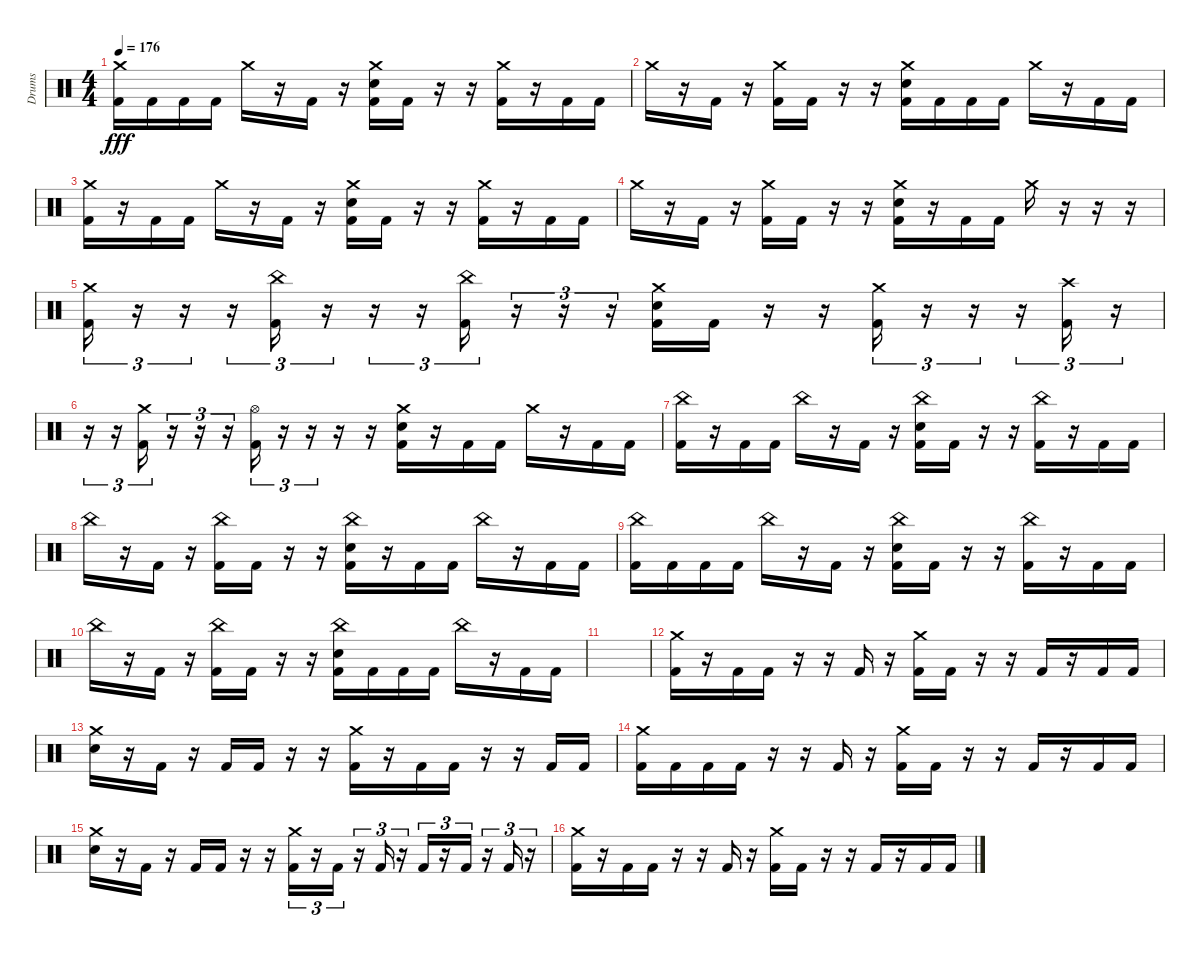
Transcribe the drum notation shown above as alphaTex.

\track ("Drums" "Drums") {instrument percussion}
\staff {score}
\articulation defaults
\ts (4 4)
\tempo 176
\clef neutral
\ks c
("Crash medium (hit)" "Kick (hit) 2").16{dy fff} "Kick (hit) 2".16 "Kick (hit) 2".16 "Kick (hit) 2".16 "Crash medium (hit)".16 r.16 "Kick (hit) 2".16 r.16 ("Crash medium (hit)" "Kick (hit) 2" "Electric Snare (hit)").16 "Kick (hit) 2".16 r.16 r.16 ("Crash medium (hit)" "Kick (hit) 2").16 r.16 "Kick (hit) 2".16 "Kick (hit) 2".16 |
"Crash medium (hit)".16 r.16 "Kick (hit) 2".16 r.16 ("Crash medium (hit)" "Kick (hit) 2").16 "Kick (hit) 2".16 r.16 r.16 ("Crash medium (hit)" "Kick (hit) 2" "Electric Snare (hit)").16 "Kick (hit) 2".16 "Kick (hit) 2".16 "Kick (hit) 2".16 "Crash medium (hit)".16 r.16 "Kick (hit) 2".16 "Kick (hit) 2".16 |
("Crash medium (hit)" "Kick (hit) 2").16 r.16 "Kick (hit) 2".16 "Kick (hit) 2".16 "Crash medium (hit)".16 r.16 "Kick (hit) 2".16 r.16 ("Crash medium (hit)" "Kick (hit) 2" "Electric Snare (hit)").16 "Kick (hit) 2".16 r.16 r.16 ("Crash medium (hit)" "Kick (hit) 2").16 r.16 "Kick (hit) 2".16 "Kick (hit) 2".16 |
"Crash medium (hit)".16 r.16 "Kick (hit) 2".16 r.16 ("Crash medium (hit)" "Kick (hit) 2").16 "Kick (hit) 2".16 r.16 r.16 ("Crash medium (hit)" "Kick (hit) 2" "Electric Snare (hit)").16 r.16 "Kick (hit) 2".16 "Kick (hit) 2".16 "Crash medium (hit)".16 r.16 r.16 r.16 |
("Kick (hit) 2" "Crash medium (hit)").16{tu (3 2)} r.16{tu (3 2)} r.16{tu (3 2)} r.16{tu (3 2)} ("Kick (hit) 2" "China (hit)").16{tu (3 2)} r.16{tu (3 2)} r.16{tu (3 2)} r.16{tu (3 2)} ("Kick (hit) 2" "China (hit)").16{tu (3 2)} r.16{tu (3 2)} r.16{tu (3 2)} r.16{tu (3 2)} ("Kick (hit) 2" "Crash medium (hit)" "Electric Snare (hit)").16 "Kick (hit) 2".16 r.16 r.16 ("Kick (hit) 2" "Crash medium (hit)").16{tu (3 2)} r.16{tu (3 2)} r.16{tu (3 2)} r.16{tu (3 2)} ("Kick (hit) 2" "Crash high (hit)").16{tu (3 2)} r.16{tu (3 2)} |
r.16{tu (3 2)} r.16{tu (3 2)} ("Kick (hit) 2" "Crash medium (hit)").16{tu (3 2)} r.16{tu (3 2)} r.16{tu (3 2)} r.16{tu (3 2)} ("Kick (hit) 2" "Hi-Hat (open)").16{tu (3 2)} r.16{tu (3 2)} r.16{tu (3 2)} r.16 r.16 ("Kick (hit) 2" "Crash medium (hit)" "Electric Snare (hit)").16 r.16 "Kick (hit) 2".16 "Kick (hit) 2".16 "Crash medium (hit)".16 r.16 "Kick (hit) 2".16 "Kick (hit) 2".16 |
("China (hit)" "Kick (hit) 2").16 r.16 "Kick (hit) 2".16 "Kick (hit) 2".16 "China (hit)".16 r.16 "Kick (hit) 2".16 r.16 ("China (hit)" "Kick (hit) 2" "Electric Snare (hit)").16 "Kick (hit) 2".16 r.16 r.16 ("China (hit)" "Kick (hit) 2").16 r.16 "Kick (hit) 2".16 "Kick (hit) 2".16 |
"China (hit)".16 r.16 "Kick (hit) 2".16 r.16 ("China (hit)" "Kick (hit) 2").16 "Kick (hit) 2".16 r.16 r.16 ("China (hit)" "Kick (hit) 2" "Electric Snare (hit)").16 r.16 "Kick (hit) 2".16 "Kick (hit) 2".16 "China (hit)".16 r.16 "Kick (hit) 2".16 "Kick (hit) 2".16 |
("China (hit)" "Kick (hit) 2").16 "Kick (hit) 2".16 "Kick (hit) 2".16 "Kick (hit) 2".16 "China (hit)".16 r.16 "Kick (hit) 2".16 r.16 ("China (hit)" "Kick (hit) 2" "Electric Snare (hit)").16 "Kick (hit) 2".16 r.16 r.16 ("China (hit)" "Kick (hit) 2").16 r.16 "Kick (hit) 2".16 "Kick (hit) 2".16 |
"China (hit)".16 r.16 "Kick (hit) 2".16 r.16 ("China (hit)" "Kick (hit) 2").16 "Kick (hit) 2".16 r.16 r.16 ("China (hit)" "Kick (hit) 2" "Electric Snare (hit)").16 "Kick (hit) 2".16 "Kick (hit) 2".16 "Kick (hit) 2".16 "China (hit)".16 r.16 "Kick (hit) 2".16 "Kick (hit) 2".16 |
|
("Crash medium (hit)" "Kick (hit) 2").16 r.16 "Kick (hit) 2".16 "Kick (hit) 2".16 r.16 r.16 "Kick (hit) 2".16 r.16 ("Crash medium (hit)" "Kick (hit) 2").16 "Kick (hit) 2".16 r.16 r.16 "Kick (hit) 2".16 r.16 "Kick (hit) 2".16 "Kick (hit) 2".16 |
("Crash medium (hit)" "Electric Snare (hit)").16 r.16 "Kick (hit) 2".16 r.16 "Kick (hit) 2".16 "Kick (hit) 2".16 r.16 r.16 ("Crash medium (hit)" "Kick (hit) 2").16 r.16 "Kick (hit) 2".16 "Kick (hit) 2".16 r.16 r.16 "Kick (hit) 2".16 "Kick (hit) 2".16 |
("Crash medium (hit)" "Kick (hit) 2").16 "Kick (hit) 2".16 "Kick (hit) 2".16 "Kick (hit) 2".16 r.16 r.16 "Kick (hit) 2".16 r.16 ("Crash medium (hit)" "Kick (hit) 2").16 "Kick (hit) 2".16 r.16 r.16 "Kick (hit) 2".16 r.16 "Kick (hit) 2".16 "Kick (hit) 2".16 |
("Crash medium (hit)" "Electric Snare (hit)").16 r.16 "Kick (hit) 2".16 r.16 "Kick (hit) 2".16 "Kick (hit) 2".16 r.16 r.16 ("Crash medium (hit)" "Kick (hit) 2").16{tu (3 2)} r.16{tu (3 2)} "Kick (hit) 2".16{tu (3 2)} r.16{tu (3 2)} "Kick (hit) 2".16{tu (3 2)} r.16{tu (3 2)} "Kick (hit) 2".16{tu (3 2)} r.16{tu (3 2)} "Kick (hit) 2".16{tu (3 2)} r.16{tu (3 2)} "Kick (hit) 2".16{tu (3 2)} r.16{tu (3 2)} |
("Crash medium (hit)" "Kick (hit) 2").16 r.16 "Kick (hit) 2".16 "Kick (hit) 2".16 r.16 r.16 "Kick (hit) 2".16 r.16 ("Crash medium (hit)" "Kick (hit) 2").16 "Kick (hit) 2".16 r.16 r.16 "Kick (hit) 2".16 r.16 "Kick (hit) 2".16 "Kick (hit) 2".16
